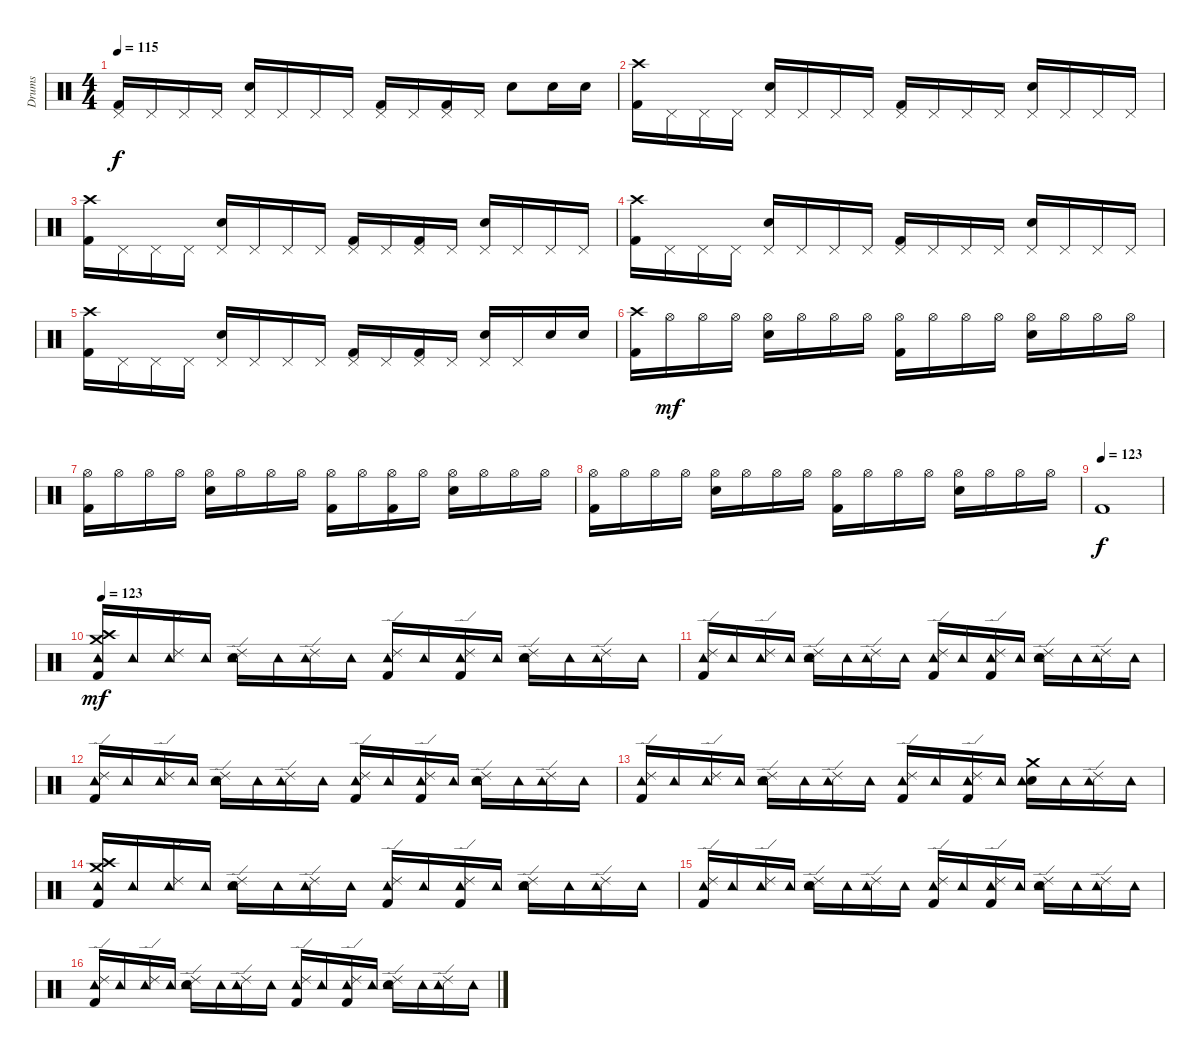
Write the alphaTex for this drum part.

\track ("Drums" "Drums") {instrument percussion}
\staff {score}
\articulation defaults
\ts (4 4)
\tempo 115
\clef neutral
\ks c
("Pedal Hi-Hat (hit)" "Kick (hit) 2").16{dy f} "Pedal Hi-Hat (hit)".16 "Pedal Hi-Hat (hit)".16 "Pedal Hi-Hat (hit)".16 ("Pedal Hi-Hat (hit)" "Electric Snare (hit)").16 "Pedal Hi-Hat (hit)".16 "Pedal Hi-Hat (hit)".16 "Pedal Hi-Hat (hit)".16 ("Pedal Hi-Hat (hit)" "Kick (hit) 2").16 "Pedal Hi-Hat (hit)".16 ("Pedal Hi-Hat (hit)" "Kick (hit) 2").16 "Pedal Hi-Hat (hit)".16 "Electric Snare (hit)".8 "Electric Snare (hit)".16 "Electric Snare (hit)".16 |
("Crash high (hit)" "Kick (hit) 2").16 "Pedal Hi-Hat (hit)".16 "Pedal Hi-Hat (hit)".16 "Pedal Hi-Hat (hit)".16 ("Pedal Hi-Hat (hit)" "Electric Snare (hit)").16 "Pedal Hi-Hat (hit)".16 "Pedal Hi-Hat (hit)".16 "Pedal Hi-Hat (hit)".16 ("Pedal Hi-Hat (hit)" "Kick (hit) 2").16 "Pedal Hi-Hat (hit)".16 "Pedal Hi-Hat (hit)".16 "Pedal Hi-Hat (hit)".16 ("Pedal Hi-Hat (hit)" "Electric Snare (hit)").16 "Pedal Hi-Hat (hit)".16 "Pedal Hi-Hat (hit)".16 "Pedal Hi-Hat (hit)".16 |
("Crash high (hit)" "Kick (hit) 2").16 "Pedal Hi-Hat (hit)".16 "Pedal Hi-Hat (hit)".16 "Pedal Hi-Hat (hit)".16 ("Pedal Hi-Hat (hit)" "Electric Snare (hit)").16 "Pedal Hi-Hat (hit)".16 "Pedal Hi-Hat (hit)".16 "Pedal Hi-Hat (hit)".16 ("Pedal Hi-Hat (hit)" "Kick (hit) 2").16 "Pedal Hi-Hat (hit)".16 ("Pedal Hi-Hat (hit)" "Kick (hit) 2").16 "Pedal Hi-Hat (hit)".16 ("Pedal Hi-Hat (hit)" "Electric Snare (hit)").16 "Pedal Hi-Hat (hit)".16 "Pedal Hi-Hat (hit)".16 "Pedal Hi-Hat (hit)".16 |
("Crash high (hit)" "Kick (hit) 2").16 "Pedal Hi-Hat (hit)".16 "Pedal Hi-Hat (hit)".16 "Pedal Hi-Hat (hit)".16 ("Pedal Hi-Hat (hit)" "Electric Snare (hit)").16 "Pedal Hi-Hat (hit)".16 "Pedal Hi-Hat (hit)".16 "Pedal Hi-Hat (hit)".16 ("Pedal Hi-Hat (hit)" "Kick (hit) 2").16 "Pedal Hi-Hat (hit)".16 "Pedal Hi-Hat (hit)".16 "Pedal Hi-Hat (hit)".16 ("Pedal Hi-Hat (hit)" "Electric Snare (hit)").16 "Pedal Hi-Hat (hit)".16 "Pedal Hi-Hat (hit)".16 "Pedal Hi-Hat (hit)".16 |
("Crash high (hit)" "Kick (hit) 2").16 "Pedal Hi-Hat (hit)".16 "Pedal Hi-Hat (hit)".16 "Pedal Hi-Hat (hit)".16 ("Pedal Hi-Hat (hit)" "Electric Snare (hit)").16 "Pedal Hi-Hat (hit)".16 "Pedal Hi-Hat (hit)".16 "Pedal Hi-Hat (hit)".16 ("Pedal Hi-Hat (hit)" "Kick (hit) 2").16 "Pedal Hi-Hat (hit)".16 ("Pedal Hi-Hat (hit)" "Kick (hit) 2").16 "Pedal Hi-Hat (hit)".16 ("Pedal Hi-Hat (hit)" "Electric Snare (hit)").16 "Pedal Hi-Hat (hit)".16 "Electric Snare (hit)".16 "Electric Snare (hit)".16 |
("Crash high (hit)" "Kick (hit) 2").16 "Hi-Hat (open)".16{dy mf} "Hi-Hat (open)".16 "Hi-Hat (open)".16 ("Hi-Hat (open)" "Electric Snare (hit)").16 "Hi-Hat (open)".16 "Hi-Hat (open)".16 "Hi-Hat (open)".16 ("Hi-Hat (open)" "Kick (hit) 2").16 "Hi-Hat (open)".16 "Hi-Hat (open)".16 "Hi-Hat (open)".16 ("Hi-Hat (open)" "Electric Snare (hit)").16 "Hi-Hat (open)".16 "Hi-Hat (open)".16 "Hi-Hat (open)".16 |
("Hi-Hat (open)" "Kick (hit) 2").16 "Hi-Hat (open)".16 "Hi-Hat (open)".16 "Hi-Hat (open)".16 ("Hi-Hat (open)" "Electric Snare (hit)").16 "Hi-Hat (open)".16 "Hi-Hat (open)".16 "Hi-Hat (open)".16 ("Hi-Hat (open)" "Kick (hit) 2").16 "Hi-Hat (open)".16 ("Hi-Hat (open)" "Kick (hit) 2").16 "Hi-Hat (open)".16 ("Hi-Hat (open)" "Electric Snare (hit)").16 "Hi-Hat (open)".16 "Hi-Hat (open)".16 "Hi-Hat (open)".16 |
("Hi-Hat (open)" "Kick (hit) 2").16 "Hi-Hat (open)".16 "Hi-Hat (open)".16 "Hi-Hat (open)".16 ("Hi-Hat (open)" "Electric Snare (hit)").16 "Hi-Hat (open)".16 "Hi-Hat (open)".16 "Hi-Hat (open)".16 ("Hi-Hat (open)" "Kick (hit) 2").16 "Hi-Hat (open)".16 "Hi-Hat (open)".16 "Hi-Hat (open)".16 ("Hi-Hat (open)" "Electric Snare (hit)").16 "Hi-Hat (open)".16 "Hi-Hat (open)".16 "Hi-Hat (open)".16 |
\tempo (123)
"Kick (hit) 2".1{dy f} |
\tempo 123
("Crash high (hit)" "Crash medium (hit)" "Tambourine (hit)" "Kick (hit) 2").16{dy mf} "Tambourine (hit)".16 ("Ride (edge) 2" "Tambourine (hit)").16 "Tambourine (hit)".16 ("Ride (edge) 2" "Electric Snare (hit)" "Tambourine (hit)").16 "Tambourine (hit)".16 ("Ride (edge) 2" "Tambourine (hit)").16 "Tambourine (hit)".16 ("Ride (edge) 2" "Tambourine (hit)" "Kick (hit) 2").16 "Tambourine (hit)".16 ("Ride (edge) 2" "Tambourine (hit)" "Kick (hit) 2").16 "Tambourine (hit)".16 ("Ride (edge) 2" "Electric Snare (hit)" "Tambourine (hit)").16 "Tambourine (hit)".16 ("Ride (edge) 2" "Tambourine (hit)").16 "Tambourine (hit)".16 |
("Ride (edge) 2" "Tambourine (hit)" "Kick (hit) 2").16 "Tambourine (hit)".16 ("Ride (edge) 2" "Tambourine (hit)").16 "Tambourine (hit)".16 ("Ride (edge) 2" "Electric Snare (hit)" "Tambourine (hit)").16 "Tambourine (hit)".16 ("Ride (edge) 2" "Tambourine (hit)").16 "Tambourine (hit)".16 ("Ride (edge) 2" "Tambourine (hit)" "Kick (hit) 2").16 "Tambourine (hit)".16 ("Ride (edge) 2" "Tambourine (hit)" "Kick (hit) 2").16 "Tambourine (hit)".16 ("Ride (edge) 2" "Electric Snare (hit)" "Tambourine (hit)").16 "Tambourine (hit)".16 ("Ride (edge) 2" "Tambourine (hit)").16 "Tambourine (hit)".16 |
("Ride (edge) 2" "Tambourine (hit)" "Kick (hit) 2").16 "Tambourine (hit)".16 ("Ride (edge) 2" "Tambourine (hit)").16 "Tambourine (hit)".16 ("Ride (edge) 2" "Electric Snare (hit)" "Tambourine (hit)").16 "Tambourine (hit)".16 ("Ride (edge) 2" "Tambourine (hit)").16 "Tambourine (hit)".16 ("Ride (edge) 2" "Tambourine (hit)" "Kick (hit) 2").16 "Tambourine (hit)".16 ("Ride (edge) 2" "Tambourine (hit)" "Kick (hit) 2").16 "Tambourine (hit)".16 ("Ride (edge) 2" "Electric Snare (hit)" "Tambourine (hit)").16 "Tambourine (hit)".16 ("Ride (edge) 2" "Tambourine (hit)").16 "Tambourine (hit)".16 |
("Ride (edge) 2" "Tambourine (hit)" "Kick (hit) 2").16 "Tambourine (hit)".16 ("Ride (edge) 2" "Tambourine (hit)").16 "Tambourine (hit)".16 ("Ride (edge) 2" "Electric Snare (hit)" "Tambourine (hit)").16 "Tambourine (hit)".16 ("Ride (edge) 2" "Tambourine (hit)").16 "Tambourine (hit)".16 ("Ride (edge) 2" "Tambourine (hit)" "Kick (hit) 2").16 "Tambourine (hit)".16 ("Ride (edge) 2" "Tambourine (hit)" "Kick (hit) 2").16 "Tambourine (hit)".16 ("Crash medium (hit)" "Electric Snare (hit)" "Tambourine (hit)").16 "Tambourine (hit)".16 ("Ride (edge) 2" "Tambourine (hit)").16 "Tambourine (hit)".16 |
("Crash high (hit)" "Crash medium (hit)" "Tambourine (hit)" "Kick (hit) 2").16 "Tambourine (hit)".16 ("Ride (edge) 2" "Tambourine (hit)").16 "Tambourine (hit)".16 ("Ride (edge) 2" "Electric Snare (hit)" "Tambourine (hit)").16 "Tambourine (hit)".16 ("Ride (edge) 2" "Tambourine (hit)").16 "Tambourine (hit)".16 ("Ride (edge) 2" "Tambourine (hit)" "Kick (hit) 2").16 "Tambourine (hit)".16 ("Ride (edge) 2" "Tambourine (hit)" "Kick (hit) 2").16 "Tambourine (hit)".16 ("Ride (edge) 2" "Electric Snare (hit)" "Tambourine (hit)").16 "Tambourine (hit)".16 ("Ride (edge) 2" "Tambourine (hit)").16 "Tambourine (hit)".16 |
("Ride (edge) 2" "Tambourine (hit)" "Kick (hit) 2").16 "Tambourine (hit)".16 ("Ride (edge) 2" "Tambourine (hit)").16 "Tambourine (hit)".16 ("Ride (edge) 2" "Electric Snare (hit)" "Tambourine (hit)").16 "Tambourine (hit)".16 ("Ride (edge) 2" "Tambourine (hit)").16 "Tambourine (hit)".16 ("Ride (edge) 2" "Tambourine (hit)" "Kick (hit) 2").16 "Tambourine (hit)".16 ("Ride (edge) 2" "Tambourine (hit)" "Kick (hit) 2").16 "Tambourine (hit)".16 ("Ride (edge) 2" "Electric Snare (hit)" "Tambourine (hit)").16 "Tambourine (hit)".16 ("Ride (edge) 2" "Tambourine (hit)").16 "Tambourine (hit)".16 |
("Ride (edge) 2" "Tambourine (hit)" "Kick (hit) 2").16 "Tambourine (hit)".16 ("Ride (edge) 2" "Tambourine (hit)").16 "Tambourine (hit)".16 ("Ride (edge) 2" "Electric Snare (hit)" "Tambourine (hit)").16 "Tambourine (hit)".16 ("Ride (edge) 2" "Tambourine (hit)").16 "Tambourine (hit)".16 ("Ride (edge) 2" "Tambourine (hit)" "Kick (hit) 2").16 "Tambourine (hit)".16 ("Ride (edge) 2" "Tambourine (hit)" "Kick (hit) 2").16 "Tambourine (hit)".16 ("Ride (edge) 2" "Electric Snare (hit)" "Tambourine (hit)").16 "Tambourine (hit)".16 ("Ride (edge) 2" "Tambourine (hit)").16 "Tambourine (hit)".16
